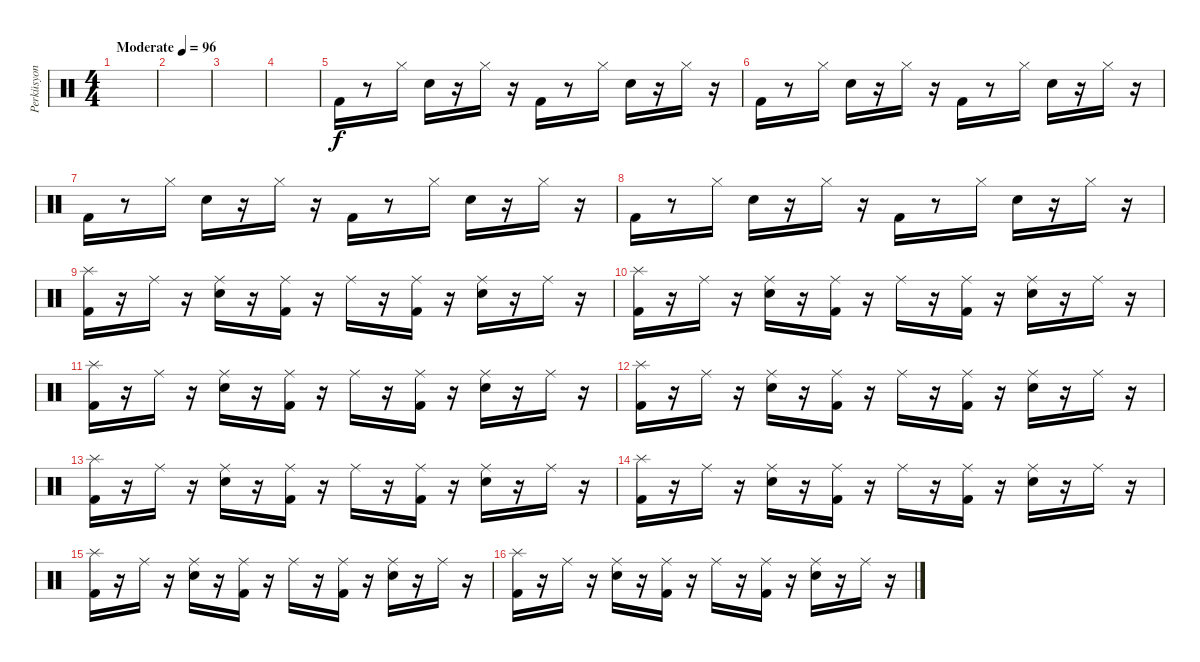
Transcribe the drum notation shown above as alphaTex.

\track ("Perküsyon" "Perküsyon") {instrument percussion}
\staff {score}
\articulation defaults
\ts (4 4)
\tempo (96 "Moderate")
\clef neutral
\ks c
|
|
|
|
"Kick (hit) 2".16 r.8 "Hi-Hat (closed)".16 "Snare (hit) 2".16 r.16 "Hi-Hat (closed)".16 r.16 "Kick (hit) 2".16 r.8 "Hi-Hat (closed)".16 "Snare (hit) 2".16 r.16 "Hi-Hat (closed)".16 r.16 |
"Kick (hit) 2".16 r.8 "Hi-Hat (closed)".16 "Snare (hit) 2".16 r.16 "Hi-Hat (closed)".16 r.16 "Kick (hit) 2".16 r.8 "Hi-Hat (closed)".16 "Snare (hit) 2".16 r.16 "Hi-Hat (closed)".16 r.16 |
"Kick (hit) 2".16 r.8 "Hi-Hat (closed)".16 "Snare (hit) 2".16 r.16 "Hi-Hat (closed)".16 r.16 "Kick (hit) 2".16 r.8 "Hi-Hat (closed)".16 "Snare (hit) 2".16 r.16 "Hi-Hat (closed)".16 r.16 |
"Kick (hit) 2".16 r.8 "Hi-Hat (closed)".16 "Snare (hit) 2".16 r.16 "Hi-Hat (closed)".16 r.16 "Kick (hit) 2".16 r.8 "Hi-Hat (closed)".16 "Snare (hit) 2".16 r.16 "Hi-Hat (closed)".16 r.16 |
("Kick (hit) 2" "Splash (hit)").16 r.16 "Ride (middle)".16 r.16 ("Snare (hit) 2" "Ride (middle)").16 r.16 ("Ride (middle)" "Kick (hit) 2").16 r.16 "Ride (middle)".16 r.16 ("Ride (middle)" "Kick (hit) 2").16 r.16 ("Snare (hit) 2" "Ride (middle)").16 r.16 "Ride (middle)".16 r.16 |
("Kick (hit) 2" "Splash (hit)").16 r.16 "Ride (middle)".16 r.16 ("Snare (hit) 2" "Ride (middle)").16 r.16 ("Ride (middle)" "Kick (hit) 2").16 r.16 "Ride (middle)".16 r.16 ("Ride (middle)" "Kick (hit) 2").16 r.16 ("Snare (hit) 2" "Ride (middle)").16 r.16 "Ride (middle)".16 r.16 |
("Kick (hit) 2" "Splash (hit)").16 r.16 "Ride (middle)".16 r.16 ("Snare (hit) 2" "Ride (middle)").16 r.16 ("Ride (middle)" "Kick (hit) 2").16 r.16 "Ride (middle)".16 r.16 ("Ride (middle)" "Kick (hit) 2").16 r.16 ("Snare (hit) 2" "Ride (middle)").16 r.16 "Ride (middle)".16 r.16 |
("Kick (hit) 2" "Splash (hit)").16 r.16 "Ride (middle)".16 r.16 ("Snare (hit) 2" "Ride (middle)").16 r.16 ("Ride (middle)" "Kick (hit) 2").16 r.16 "Ride (middle)".16 r.16 ("Ride (middle)" "Kick (hit) 2").16 r.16 ("Snare (hit) 2" "Ride (middle)").16 r.16 "Ride (middle)".16 r.16 |
("Kick (hit) 2" "Splash (hit)").16 r.16 "Ride (middle)".16 r.16 ("Snare (hit) 2" "Ride (middle)").16 r.16 ("Ride (middle)" "Kick (hit) 2").16 r.16 "Ride (middle)".16 r.16 ("Ride (middle)" "Kick (hit) 2").16 r.16 ("Snare (hit) 2" "Ride (middle)").16 r.16 "Ride (middle)".16 r.16 |
("Kick (hit) 2" "Splash (hit)").16 r.16 "Ride (middle)".16 r.16 ("Snare (hit) 2" "Ride (middle)").16 r.16 ("Ride (middle)" "Kick (hit) 2").16 r.16 "Ride (middle)".16 r.16 ("Ride (middle)" "Kick (hit) 2").16 r.16 ("Snare (hit) 2" "Ride (middle)").16 r.16 "Ride (middle)".16 r.16 |
("Kick (hit) 2" "Splash (hit)").16 r.16 "Ride (middle)".16 r.16 ("Snare (hit) 2" "Ride (middle)").16 r.16 ("Ride (middle)" "Kick (hit) 2").16 r.16 "Ride (middle)".16 r.16 ("Ride (middle)" "Kick (hit) 2").16 r.16 ("Snare (hit) 2" "Ride (middle)").16 r.16 "Ride (middle)".16 r.16 |
("Kick (hit) 2" "Splash (hit)").16 r.16 "Ride (middle)".16 r.16 ("Snare (hit) 2" "Ride (middle)").16 r.16 ("Ride (middle)" "Kick (hit) 2").16 r.16 "Ride (middle)".16 r.16 ("Ride (middle)" "Kick (hit) 2").16 r.16 ("Snare (hit) 2" "Ride (middle)").16 r.16 "Ride (middle)".16 r.16
